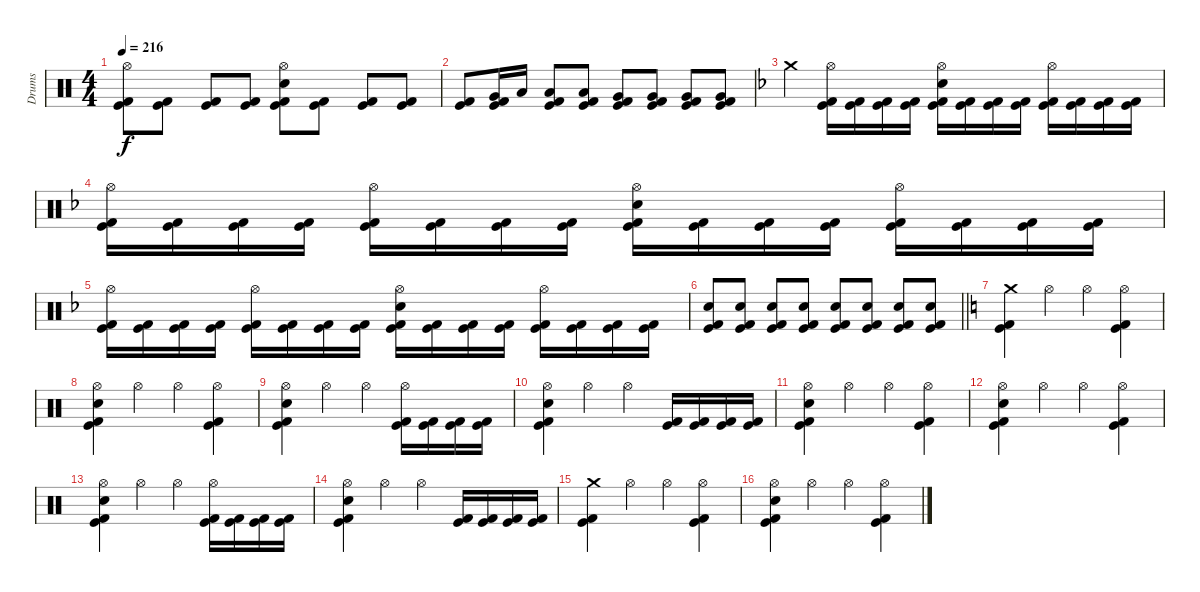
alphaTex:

\track ("Drums" "Drums") {instrument percussion}
\staff {score}
\articulation defaults
\ts (4 4)
\tempo 216
\clef neutral
\ks c
("Hi-Hat (open)" "Kick (hit)" "Kick (hit) 2").8{dy f} ("Kick (hit)" "Kick (hit) 2").8 ("Kick (hit)" "Kick (hit) 2").8 ("Kick (hit)" "Kick (hit) 2").8 ("Hi-Hat (open)" "Electric Snare (hit)" "Kick (hit)" "Kick (hit) 2").8 ("Kick (hit)" "Kick (hit) 2").8 ("Kick (hit)" "Kick (hit) 2").8 ("Kick (hit)" "Kick (hit) 2").8 |
("Kick (hit)" "Kick (hit) 2").8 ("Very Low Tom (hit)" "Kick (hit)" "Kick (hit) 2").16 "Low Tom (hit)".16 ("Low Tom (hit)" "Kick (hit)" "Kick (hit) 2").8 ("Low Tom (hit)" "Kick (hit)" "Kick (hit) 2").8 ("Very Low Tom (hit)" "Kick (hit)" "Kick (hit) 2").8 ("Very Low Tom (hit)" "Kick (hit)" "Kick (hit) 2").8 ("Very Low Tom (hit)" "Kick (hit)" "Kick (hit) 2").8 ("Very Low Tom (hit)" "Kick (hit)" "Kick (hit) 2").8 |
\ks f "Crash medium (hit)".4
("Hi-Hat (open)" "Kick (hit)" "Kick (hit) 2").16 ("Kick (hit)" "Kick (hit) 2").16 ("Kick (hit)" "Kick (hit) 2").16 ("Kick (hit)" "Kick (hit) 2").16 ("Hi-Hat (open)" "Electric Snare (hit)" "Kick (hit)" "Kick (hit) 2").16 ("Kick (hit)" "Kick (hit) 2").16 ("Kick (hit)" "Kick (hit) 2").16 ("Kick (hit)" "Kick (hit) 2").16 ("Hi-Hat (open)" "Kick (hit)" "Kick (hit) 2").16 ("Kick (hit)" "Kick (hit) 2").16 ("Kick (hit)" "Kick (hit) 2").16 ("Kick (hit)" "Kick (hit) 2").16 |
("Hi-Hat (open)" "Kick (hit)" "Kick (hit) 2").16 ("Kick (hit)" "Kick (hit) 2").16 ("Kick (hit)" "Kick (hit) 2").16 ("Kick (hit)" "Kick (hit) 2").16 ("Hi-Hat (open)" "Kick (hit)" "Kick (hit) 2").16 ("Kick (hit)" "Kick (hit) 2").16 ("Kick (hit)" "Kick (hit) 2").16 ("Kick (hit)" "Kick (hit) 2").16 ("Hi-Hat (open)" "Electric Snare (hit)" "Kick (hit)" "Kick (hit) 2").16 ("Kick (hit)" "Kick (hit) 2").16 ("Kick (hit)" "Kick (hit) 2").16 ("Kick (hit)" "Kick (hit) 2").16 ("Hi-Hat (open)" "Kick (hit)" "Kick (hit) 2").16 ("Kick (hit)" "Kick (hit) 2").16 ("Kick (hit)" "Kick (hit) 2").16 ("Kick (hit)" "Kick (hit) 2").16 |
("Hi-Hat (open)" "Kick (hit)" "Kick (hit) 2").16 ("Kick (hit)" "Kick (hit) 2").16 ("Kick (hit)" "Kick (hit) 2").16 ("Kick (hit)" "Kick (hit) 2").16 ("Hi-Hat (open)" "Kick (hit)" "Kick (hit) 2").16 ("Kick (hit)" "Kick (hit) 2").16 ("Kick (hit)" "Kick (hit) 2").16 ("Kick (hit)" "Kick (hit) 2").16 ("Hi-Hat (open)" "Electric Snare (hit)" "Kick (hit)" "Kick (hit) 2").16 ("Kick (hit)" "Kick (hit) 2").16 ("Kick (hit)" "Kick (hit) 2").16 ("Kick (hit)" "Kick (hit) 2").16 ("Hi-Hat (open)" "Kick (hit)" "Kick (hit) 2").16 ("Kick (hit)" "Kick (hit) 2").16 ("Kick (hit)" "Kick (hit) 2").16 ("Kick (hit)" "Kick (hit) 2").16 |
\barLineRight lightlight
("Electric Snare (hit)" "Kick (hit)" "Kick (hit) 2").8 ("Electric Snare (hit)" "Kick (hit)" "Kick (hit) 2").8 ("Electric Snare (hit)" "Kick (hit)" "Kick (hit) 2").8 ("Electric Snare (hit)" "Kick (hit)" "Kick (hit) 2").8 ("Electric Snare (hit)" "Kick (hit)" "Kick (hit) 2").8 ("Electric Snare (hit)" "Kick (hit)" "Kick (hit) 2").8 ("Electric Snare (hit)" "Kick (hit)" "Kick (hit) 2").8 ("Electric Snare (hit)" "Kick (hit)" "Kick (hit) 2").8 |
\section ("" "")
\ks c
("Crash medium (hit)" "Kick (hit)" "Kick (hit) 2").4 "Hi-Hat (open)".4 "Hi-Hat (open)".4 ("Hi-Hat (open)" "Kick (hit)" "Kick (hit) 2").4 |
("Hi-Hat (open)" "Electric Snare (hit)" "Kick (hit)" "Kick (hit) 2").4 "Hi-Hat (open)".4 "Hi-Hat (open)".4 ("Hi-Hat (open)" "Kick (hit)" "Kick (hit) 2").4 |
("Hi-Hat (open)" "Electric Snare (hit)" "Kick (hit)" "Kick (hit) 2").4 "Hi-Hat (open)".4 "Hi-Hat (open)".4 ("Hi-Hat (open)" "Kick (hit)" "Kick (hit) 2").16 ("Kick (hit)" "Kick (hit) 2").16 ("Kick (hit)" "Kick (hit) 2").16 ("Kick (hit)" "Kick (hit) 2").16 |
("Hi-Hat (open)" "Electric Snare (hit)" "Kick (hit)" "Kick (hit) 2").4 "Hi-Hat (open)".4 "Hi-Hat (open)".4 ("Kick (hit)" "Kick (hit) 2").16 ("Kick (hit)" "Kick (hit) 2").16 ("Kick (hit)" "Kick (hit) 2").16 ("Kick (hit)" "Kick (hit) 2").16 |
("Hi-Hat (open)" "Electric Snare (hit)" "Kick (hit)" "Kick (hit) 2").4 "Hi-Hat (open)".4 "Hi-Hat (open)".4 ("Hi-Hat (open)" "Kick (hit)" "Kick (hit) 2").4 |
("Hi-Hat (open)" "Electric Snare (hit)" "Kick (hit)" "Kick (hit) 2").4 "Hi-Hat (open)".4 "Hi-Hat (open)".4 ("Hi-Hat (open)" "Kick (hit)" "Kick (hit) 2").4 |
("Hi-Hat (open)" "Electric Snare (hit)" "Kick (hit)" "Kick (hit) 2").4 "Hi-Hat (open)".4 "Hi-Hat (open)".4 ("Hi-Hat (open)" "Kick (hit)" "Kick (hit) 2").16 ("Kick (hit)" "Kick (hit) 2").16 ("Kick (hit)" "Kick (hit) 2").16 ("Kick (hit)" "Kick (hit) 2").16 |
("Hi-Hat (open)" "Electric Snare (hit)" "Kick (hit)" "Kick (hit) 2").4 "Hi-Hat (open)".4 "Hi-Hat (open)".4 ("Kick (hit)" "Kick (hit) 2").16 ("Kick (hit)" "Kick (hit) 2").16 ("Kick (hit)" "Kick (hit) 2").16 ("Kick (hit)" "Kick (hit) 2").16 |
("Crash medium (hit)" "Kick (hit)" "Kick (hit) 2").4 "Hi-Hat (open)".4 "Hi-Hat (open)".4 ("Hi-Hat (open)" "Kick (hit)" "Kick (hit) 2").4 |
("Hi-Hat (open)" "Electric Snare (hit)" "Kick (hit)" "Kick (hit) 2").4 "Hi-Hat (open)".4 "Hi-Hat (open)".4 ("Hi-Hat (open)" "Kick (hit)" "Kick (hit) 2").4
